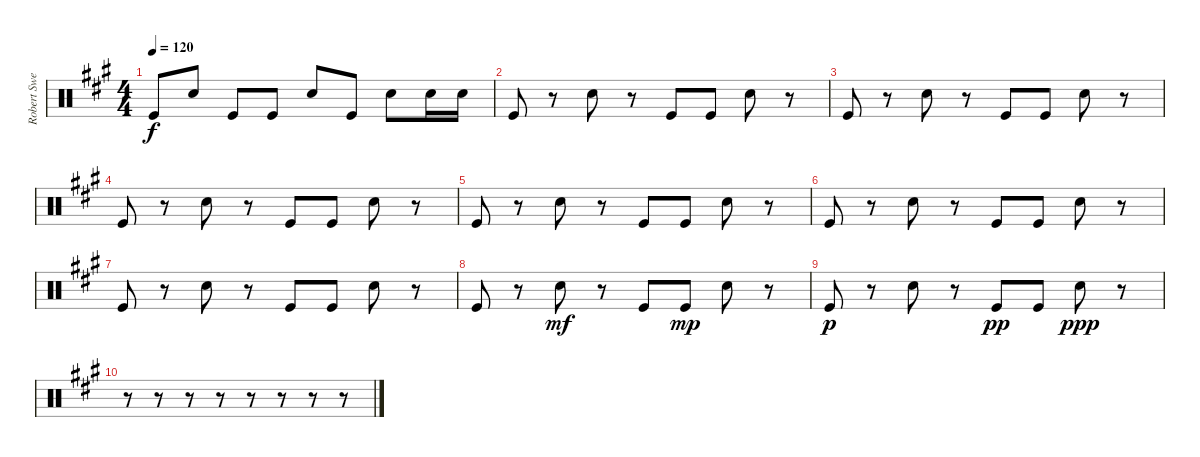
\track ("Robert Sweet" "Robert Swe") {instrument percussion}
\staff {score}
\articulation defaults
\ts (4 4)
\tempo 120
\clef neutral
\ks a "Kick (hit)".8{dy f} "Snare (hit) 2".8 "Kick (hit)".8 "Kick (hit)".8 "Snare (hit) 2".8 "Kick (hit)".8 "Snare (hit) 2".8 "Snare (hit) 2".16 "Snare (hit) 2".16
|
"Kick (hit)".8 r.8 "Snare (hit) 2".8 r.8 "Kick (hit)".8 "Kick (hit)".8 "Snare (hit) 2".8 r.8 |
"Kick (hit)".8 r.8 "Snare (hit) 2".8 r.8 "Kick (hit)".8 "Kick (hit)".8 "Snare (hit) 2".8 r.8 |
"Kick (hit)".8 r.8 "Snare (hit) 2".8 r.8 "Kick (hit)".8 "Kick (hit)".8 "Snare (hit) 2".8 r.8 |
"Kick (hit)".8 r.8 "Snare (hit) 2".8 r.8 "Kick (hit)".8 "Kick (hit)".8 "Snare (hit) 2".8 r.8 |
"Kick (hit)".8 r.8 "Snare (hit) 2".8 r.8 "Kick (hit)".8 "Kick (hit)".8 "Snare (hit) 2".8 r.8 |
"Kick (hit)".8 r.8 "Snare (hit) 2".8 r.8 "Kick (hit)".8 "Kick (hit)".8 "Snare (hit) 2".8 r.8 |
"Kick (hit)".8 r.8 "Snare (hit) 2".8{dy mf} r.8 "Kick (hit)".8 "Kick (hit)".8{dy mp} "Snare (hit) 2".8 r.8 |
"Kick (hit)".8{dy p} r.8 "Snare (hit) 2".8 r.8 "Kick (hit)".8{dy pp} "Kick (hit)".8 "Snare (hit) 2".8{dy ppp} r.8 |
r.8 r.8 r.8 r.8 r.8 r.8 r.8 r.8
